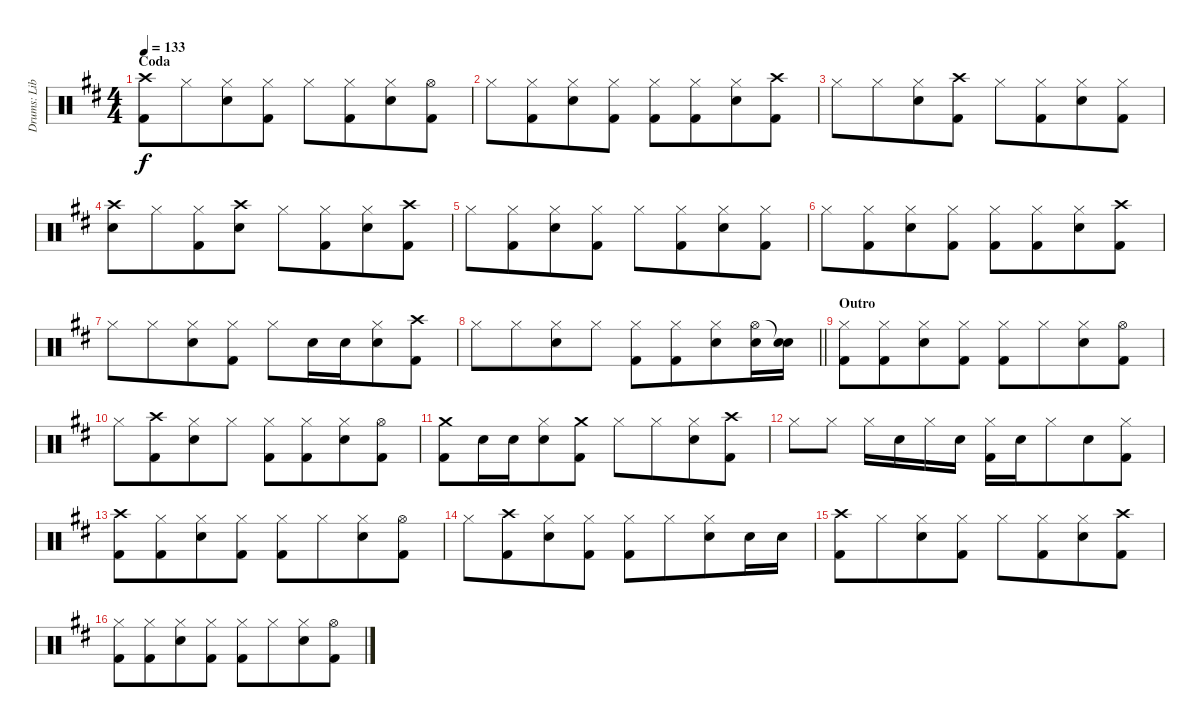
\track ("Drums: Liberty" "Drums: Lib") {instrument percussion}
\staff {score}
\articulation defaults
\ts (4 4)
\section ("" "Coda")
\tempo 133
\clef neutral
\ks d
("Crash high (hit)" "Kick (hit) 2").8{dy f} "Hi-Hat (closed)".8{beam merge} ("Hi-Hat (closed)" "Electric Snare (hit)").8 ("Hi-Hat (closed)" "Kick (hit) 2").8 "Hi-Hat (closed)".8 ("Hi-Hat (closed)" "Kick (hit) 2").8{beam merge} ("Hi-Hat (closed)" "Electric Snare (hit)").8 ("Hi-Hat (open)" "Kick (hit) 2").8 |
"Hi-Hat (closed)".8 ("Hi-Hat (closed)" "Kick (hit) 2").8{beam merge} ("Hi-Hat (closed)" "Electric Snare (hit)").8 ("Hi-Hat (closed)" "Kick (hit) 2").8 ("Hi-Hat (closed)" "Kick (hit) 2").8 ("Hi-Hat (closed)" "Kick (hit) 2").8{beam merge} ("Hi-Hat (closed)" "Electric Snare (hit)").8 ("Crash high (hit)" "Kick (hit) 2").8 |
"Hi-Hat (closed)".8 "Hi-Hat (closed)".8{beam merge} ("Hi-Hat (closed)" "Electric Snare (hit)").8 ("Crash high (hit)" "Kick (hit) 2").8 "Hi-Hat (closed)".8 ("Hi-Hat (closed)" "Kick (hit) 2").8{beam merge} ("Hi-Hat (closed)" "Electric Snare (hit)").8 ("Hi-Hat (closed)" "Kick (hit) 2").8 |
("Crash high (hit)" "Electric Snare (hit)").8 "Hi-Hat (closed)".8{beam merge} ("Hi-Hat (closed)" "Kick (hit) 2").8 ("Crash high (hit)" "Electric Snare (hit)").8 "Hi-Hat (closed)".8 ("Hi-Hat (closed)" "Kick (hit) 2").8{beam merge} ("Hi-Hat (closed)" "Electric Snare (hit)").8 ("Crash high (hit)" "Kick (hit) 2").8 |
"Hi-Hat (closed)".8 ("Hi-Hat (closed)" "Kick (hit) 2").8{beam merge} ("Hi-Hat (closed)" "Electric Snare (hit)").8 ("Hi-Hat (closed)" "Kick (hit) 2").8 "Hi-Hat (closed)".8 ("Hi-Hat (closed)" "Kick (hit) 2").8{beam merge} ("Hi-Hat (closed)" "Electric Snare (hit)").8 ("Hi-Hat (closed)" "Kick (hit) 2").8 |
"Hi-Hat (closed)".8 ("Hi-Hat (closed)" "Kick (hit) 2").8{beam merge} ("Hi-Hat (closed)" "Electric Snare (hit)").8 ("Hi-Hat (closed)" "Kick (hit) 2").8 ("Hi-Hat (closed)" "Kick (hit) 2").8 ("Hi-Hat (closed)" "Kick (hit) 2").8{beam merge} ("Hi-Hat (closed)" "Electric Snare (hit)").8 ("Crash high (hit)" "Kick (hit) 2").8 |
"Hi-Hat (closed)".8 "Hi-Hat (closed)".8{beam merge} ("Hi-Hat (closed)" "Electric Snare (hit)").8 ("Hi-Hat (closed)" "Kick (hit) 2").8 "Hi-Hat (closed)".8 "Electric Snare (hit)".16 "Electric Snare (hit)".16{beam merge} ("Hi-Hat (closed)" "Electric Snare (hit)").8 ("Crash high (hit)" "Kick (hit) 2").8 |
\barLineRight lightlight "Hi-Hat (closed)".8 "Hi-Hat (closed)".8{beam merge}
("Hi-Hat (closed)" "Electric Snare (hit)").8 "Hi-Hat (closed)".8 ("Hi-Hat (closed)" "Kick (hit) 2").8 ("Hi-Hat (closed)" "Kick (hit) 2").8{beam merge} ("Hi-Hat (closed)" "Electric Snare (hit)").8 ("Hi-Hat (open)" "Electric Snare (hit)").16 ("Snare (hit)"{t} "Electric Snare (hit)").16 |
\section ("" "Outro")
("Hi-Hat (closed)" "Kick (hit) 2").8 ("Hi-Hat (closed)" "Kick (hit) 2").8{beam merge} ("Hi-Hat (closed)" "Electric Snare (hit)").8 ("Hi-Hat (closed)" "Kick (hit) 2").8 ("Hi-Hat (closed)" "Kick (hit) 2").8 "Hi-Hat (closed)".8{beam merge} ("Hi-Hat (closed)" "Electric Snare (hit)").8 ("Hi-Hat (open)" "Kick (hit) 2").8 |
"Hi-Hat (closed)".8 ("Crash high (hit)" "Kick (hit) 2").8{beam merge} ("Hi-Hat (closed)" "Electric Snare (hit)").8 "Hi-Hat (closed)".8 ("Hi-Hat (closed)" "Kick (hit) 2").8 ("Hi-Hat (closed)" "Kick (hit) 2").8{beam merge} ("Hi-Hat (closed)" "Electric Snare (hit)").8 ("Hi-Hat (open)" "Kick (hit) 2").8 |
("Crash medium (hit)" "Kick (hit) 2").8 "Electric Snare (hit)".16 "Electric Snare (hit)".16{beam merge} ("Hi-Hat (closed)" "Electric Snare (hit)").8 ("Crash medium (hit)" "Kick (hit) 2").8 "Hi-Hat (closed)".8 "Hi-Hat (closed)".8{beam merge} ("Hi-Hat (closed)" "Electric Snare (hit)").8 ("Crash high (hit)" "Kick (hit) 2").8 |
"Hi-Hat (closed)".8 "Hi-Hat (closed)".8 "Hi-Hat (closed)".16 "Electric Snare (hit)".16 "Hi-Hat (closed)".16 "Electric Snare (hit)".16 ("Hi-Hat (closed)" "Kick (hit) 2").16 "Electric Snare (hit)".16 "Hi-Hat (closed)".8{beam merge} "Electric Snare (hit)".8 ("Hi-Hat (closed)" "Kick (hit) 2").8 |
("Crash high (hit)" "Kick (hit) 2").8 ("Hi-Hat (closed)" "Kick (hit) 2").8{beam merge} ("Hi-Hat (closed)" "Electric Snare (hit)").8 ("Hi-Hat (closed)" "Kick (hit) 2").8 ("Hi-Hat (closed)" "Kick (hit) 2").8 "Hi-Hat (closed)".8{beam merge} ("Hi-Hat (closed)" "Electric Snare (hit)").8 ("Hi-Hat (open)" "Kick (hit) 2").8 |
"Hi-Hat (closed)".8 ("Crash high (hit)" "Kick (hit) 2").8{beam merge} ("Hi-Hat (closed)" "Electric Snare (hit)").8 ("Hi-Hat (closed)" "Kick (hit) 2").8 ("Hi-Hat (closed)" "Kick (hit) 2").8 "Hi-Hat (closed)".8{beam merge} ("Hi-Hat (closed)" "Electric Snare (hit)").8 "Electric Snare (hit)".16 "Electric Snare (hit)".16 |
("Crash high (hit)" "Kick (hit) 2").8 "Hi-Hat (closed)".8{beam merge} ("Hi-Hat (closed)" "Electric Snare (hit)").8 ("Hi-Hat (closed)" "Kick (hit) 2").8 "Hi-Hat (closed)".8 ("Hi-Hat (closed)" "Kick (hit) 2").8{beam merge} ("Hi-Hat (closed)" "Electric Snare (hit)").8 ("Crash high (hit)" "Kick (hit) 2").8 |
("Hi-Hat (closed)" "Kick (hit) 2").8 ("Hi-Hat (closed)" "Kick (hit) 2").8{beam merge} ("Hi-Hat (closed)" "Electric Snare (hit)").8 ("Hi-Hat (closed)" "Kick (hit) 2").8 ("Hi-Hat (closed)" "Kick (hit) 2").8 "Hi-Hat (closed)".8{beam merge} ("Hi-Hat (closed)" "Electric Snare (hit)").8 ("Hi-Hat (open)" "Kick (hit) 2").8
